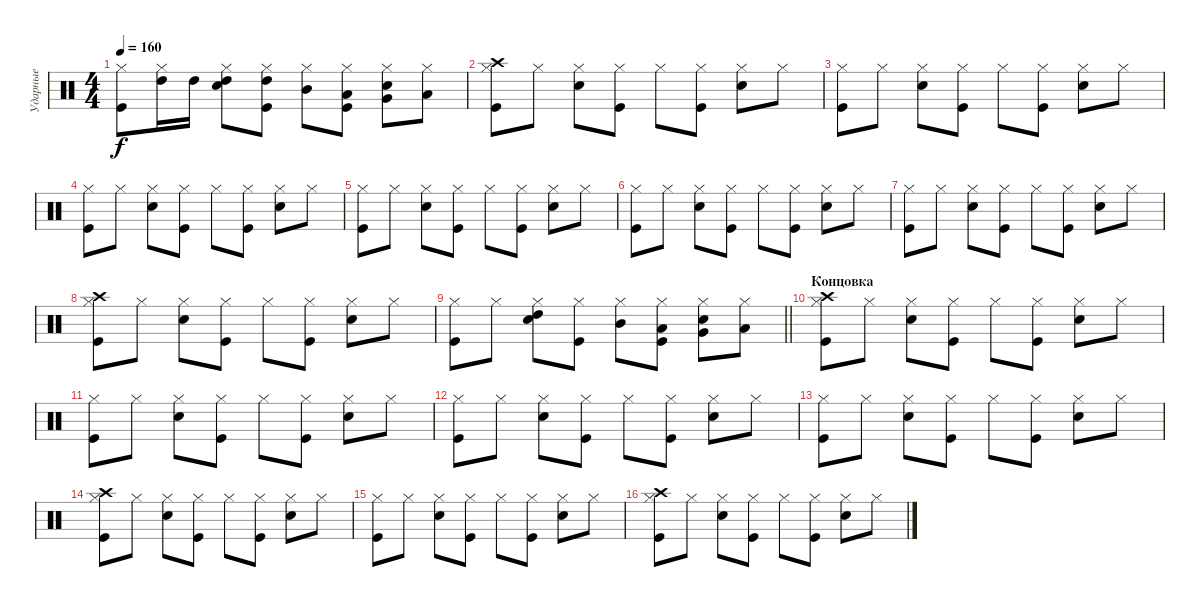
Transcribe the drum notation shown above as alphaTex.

\track ("Ударные" "Ударные") {instrument percussion}
\staff {score}
\articulation defaults
\ts (4 4)
\tempo 160
\clef neutral
\ks c
("Kick (hit)" "Hi-Hat (closed)").8{dy f} ("High Tom (hit)" "Hi-Hat (closed)").16 "High Tom (hit)".16 ("Snare (hit) 2" "High Tom (hit)" "Hi-Hat (closed)").8 ("Kick (hit)" "High Tom (hit)" "Hi-Hat (closed)").8 ("Mid Tom (hit)" "Hi-Hat (closed)").8 ("Kick (hit)" "Low Tom (hit)" "Hi-Hat (closed)").8 ("Snare (hit) 2" "Very Low Tom (hit)" "Hi-Hat (closed)").8 ("Low Floor Tom (hit)" "Hi-Hat (closed)").8 |
("Kick (hit)" "Crash high (hit)" "Hi-Hat (closed)").8 "Hi-Hat (closed)".8 ("Snare (hit) 2" "Hi-Hat (closed)").8 ("Kick (hit)" "Hi-Hat (closed)").8 "Hi-Hat (closed)".8 ("Kick (hit)" "Hi-Hat (closed)").8 ("Snare (hit) 2" "Hi-Hat (closed)").8 "Hi-Hat (closed)".8 |
("Kick (hit)" "Hi-Hat (closed)").8 "Hi-Hat (closed)".8 ("Snare (hit) 2" "Hi-Hat (closed)").8 ("Kick (hit)" "Hi-Hat (closed)").8 "Hi-Hat (closed)".8 ("Kick (hit)" "Hi-Hat (closed)").8 ("Snare (hit) 2" "Hi-Hat (closed)").8 "Hi-Hat (closed)".8 |
("Kick (hit)" "Hi-Hat (closed)").8 "Hi-Hat (closed)".8 ("Snare (hit) 2" "Hi-Hat (closed)").8 ("Kick (hit)" "Hi-Hat (closed)").8 "Hi-Hat (closed)".8 ("Kick (hit)" "Hi-Hat (closed)").8 ("Snare (hit) 2" "Hi-Hat (closed)").8 "Hi-Hat (closed)".8 |
("Kick (hit)" "Hi-Hat (closed)").8 "Hi-Hat (closed)".8 ("Snare (hit) 2" "Hi-Hat (closed)").8 ("Kick (hit)" "Hi-Hat (closed)").8 "Hi-Hat (closed)".8 ("Kick (hit)" "Hi-Hat (closed)").8 ("Snare (hit) 2" "Hi-Hat (closed)").8 "Hi-Hat (closed)".8 |
("Kick (hit)" "Hi-Hat (closed)").8 "Hi-Hat (closed)".8 ("Snare (hit) 2" "Hi-Hat (closed)").8 ("Kick (hit)" "Hi-Hat (closed)").8 "Hi-Hat (closed)".8 ("Kick (hit)" "Hi-Hat (closed)").8 ("Snare (hit) 2" "Hi-Hat (closed)").8 "Hi-Hat (closed)".8 |
("Kick (hit)" "Hi-Hat (closed)").8 "Hi-Hat (closed)".8 ("Snare (hit) 2" "Hi-Hat (closed)").8 ("Kick (hit)" "Hi-Hat (closed)").8 "Hi-Hat (closed)".8 ("Kick (hit)" "Hi-Hat (closed)").8 ("Snare (hit) 2" "Hi-Hat (closed)").8 "Hi-Hat (closed)".8 |
("Kick (hit)" "Crash high (hit)" "Hi-Hat (closed)").8 "Hi-Hat (closed)".8 ("Snare (hit) 2" "Hi-Hat (closed)").8 ("Kick (hit)" "Hi-Hat (closed)").8 "Hi-Hat (closed)".8 ("Kick (hit)" "Hi-Hat (closed)").8 ("Snare (hit) 2" "Hi-Hat (closed)").8 "Hi-Hat (closed)".8 |
\barLineRight lightlight
("Kick (hit)" "Hi-Hat (closed)").8 "Hi-Hat (closed)".8 ("Snare (hit) 2" "High Tom (hit)" "Hi-Hat (closed)").8 ("Kick (hit)" "Hi-Hat (closed)").8 ("Mid Tom (hit)" "Hi-Hat (closed)").8 ("Kick (hit)" "Low Tom (hit)" "Hi-Hat (closed)").8 ("Snare (hit) 2" "Very Low Tom (hit)" "Hi-Hat (closed)").8 ("Low Floor Tom (hit)" "Hi-Hat (closed)").8 |
\section ("" "Концовка")
("Kick (hit)" "Crash high (hit)" "Hi-Hat (closed)").8 "Hi-Hat (closed)".8 ("Snare (hit) 2" "Hi-Hat (closed)").8 ("Kick (hit)" "Hi-Hat (closed)").8 "Hi-Hat (closed)".8 ("Kick (hit)" "Hi-Hat (closed)").8 ("Snare (hit) 2" "Hi-Hat (closed)").8 "Hi-Hat (closed)".8 |
("Kick (hit)" "Hi-Hat (closed)").8 "Hi-Hat (closed)".8 ("Snare (hit) 2" "Hi-Hat (closed)").8 ("Kick (hit)" "Hi-Hat (closed)").8 "Hi-Hat (closed)".8 ("Kick (hit)" "Hi-Hat (closed)").8 ("Snare (hit) 2" "Hi-Hat (closed)").8 "Hi-Hat (closed)".8 |
("Kick (hit)" "Hi-Hat (closed)").8 "Hi-Hat (closed)".8 ("Snare (hit) 2" "Hi-Hat (closed)").8 ("Kick (hit)" "Hi-Hat (closed)").8 "Hi-Hat (closed)".8 ("Kick (hit)" "Hi-Hat (closed)").8 ("Snare (hit) 2" "Hi-Hat (closed)").8 "Hi-Hat (closed)".8 |
("Kick (hit)" "Hi-Hat (closed)").8 "Hi-Hat (closed)".8 ("Snare (hit) 2" "Hi-Hat (closed)").8 ("Kick (hit)" "Hi-Hat (closed)").8 "Hi-Hat (closed)".8 ("Kick (hit)" "Hi-Hat (closed)").8 ("Snare (hit) 2" "Hi-Hat (closed)").8 "Hi-Hat (closed)".8 |
("Kick (hit)" "Crash high (hit)" "Hi-Hat (closed)").8 "Hi-Hat (closed)".8 ("Snare (hit) 2" "Hi-Hat (closed)").8 ("Kick (hit)" "Hi-Hat (closed)").8 "Hi-Hat (closed)".8 ("Kick (hit)" "Hi-Hat (closed)").8 ("Snare (hit) 2" "Hi-Hat (closed)").8 "Hi-Hat (closed)".8 |
("Kick (hit)" "Hi-Hat (closed)").8 "Hi-Hat (closed)".8 ("Snare (hit) 2" "Hi-Hat (closed)").8 ("Kick (hit)" "Hi-Hat (closed)").8 "Hi-Hat (closed)".8 ("Kick (hit)" "Hi-Hat (closed)").8 ("Snare (hit) 2" "Hi-Hat (closed)").8 "Hi-Hat (closed)".8 |
("Kick (hit)" "Crash high (hit)" "Hi-Hat (closed)").8 "Hi-Hat (closed)".8 ("Snare (hit) 2" "Hi-Hat (closed)").8 ("Kick (hit)" "Hi-Hat (closed)").8 "Hi-Hat (closed)".8 ("Kick (hit)" "Hi-Hat (closed)").8 ("Snare (hit) 2" "Hi-Hat (closed)").8 "Hi-Hat (closed)".8
